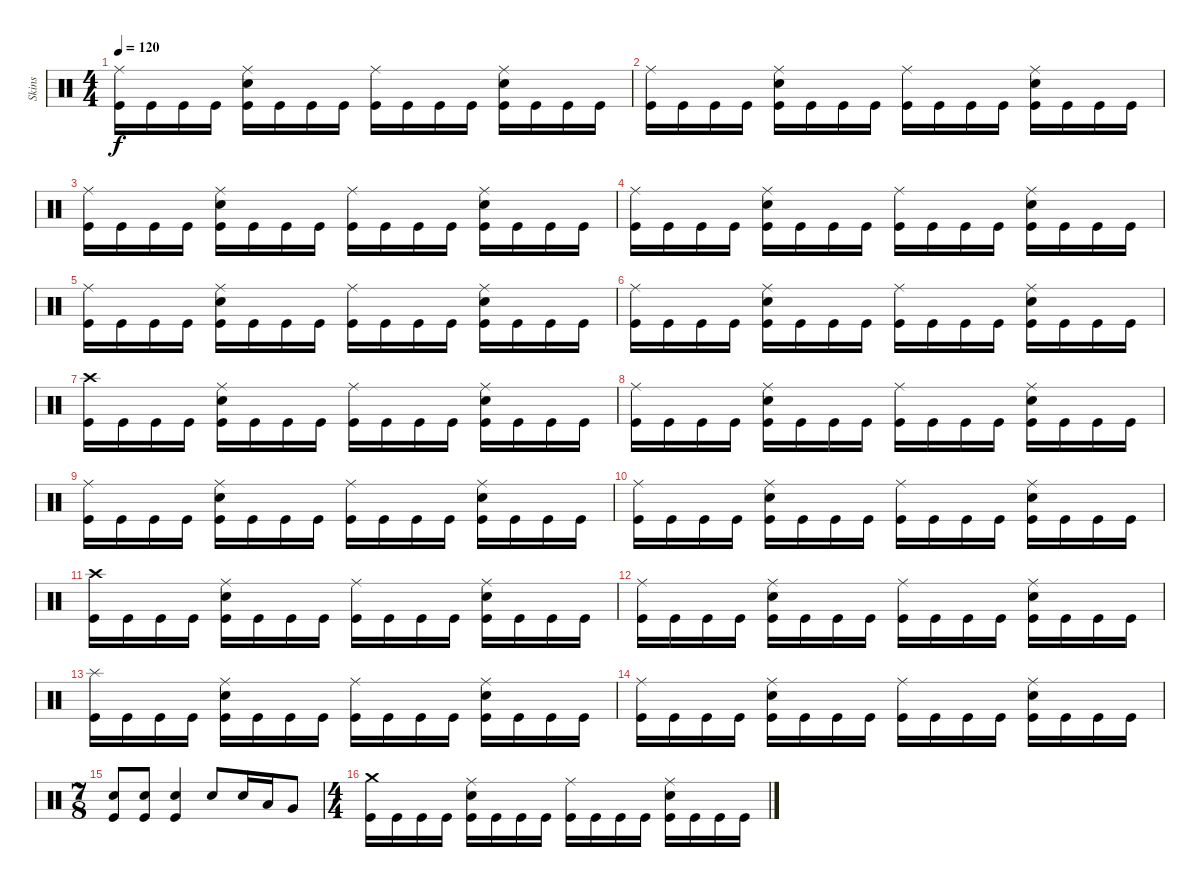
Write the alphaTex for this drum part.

\track ("Skins" "Skins") {instrument percussion}
\staff {score}
\articulation defaults
\ts (4 4)
\tempo 120
\clef neutral
\ks c
("Ride (middle)" "Kick (hit)").16{dy f} "Kick (hit)".16 "Kick (hit)".16 "Kick (hit)".16 ("Ride (middle)" "Electric Snare (hit)" "Kick (hit)").16 "Kick (hit)".16 "Kick (hit)".16 "Kick (hit)".16 ("Ride (middle)" "Kick (hit)").16 "Kick (hit)".16 "Kick (hit)".16 "Kick (hit)".16 ("Ride (middle)" "Electric Snare (hit)" "Kick (hit)").16 "Kick (hit)".16 "Kick (hit)".16 "Kick (hit)".16 |
("Ride (middle)" "Kick (hit)").16 "Kick (hit)".16 "Kick (hit)".16 "Kick (hit)".16 ("Ride (middle)" "Electric Snare (hit)" "Kick (hit)").16 "Kick (hit)".16 "Kick (hit)".16 "Kick (hit)".16 ("Ride (middle)" "Kick (hit)").16 "Kick (hit)".16 "Kick (hit)".16 "Kick (hit)".16 ("Ride (middle)" "Electric Snare (hit)" "Kick (hit)").16 "Kick (hit)".16 "Kick (hit)".16 "Kick (hit)".16 |
("Ride (middle)" "Kick (hit)").16 "Kick (hit)".16 "Kick (hit)".16 "Kick (hit)".16 ("Ride (middle)" "Electric Snare (hit)" "Kick (hit)").16 "Kick (hit)".16 "Kick (hit)".16 "Kick (hit)".16 ("Ride (middle)" "Kick (hit)").16 "Kick (hit)".16 "Kick (hit)".16 "Kick (hit)".16 ("Ride (middle)" "Electric Snare (hit)" "Kick (hit)").16 "Kick (hit)".16 "Kick (hit)".16 "Kick (hit)".16 |
("Ride (middle)" "Kick (hit)").16 "Kick (hit)".16 "Kick (hit)".16 "Kick (hit)".16 ("Ride (middle)" "Electric Snare (hit)" "Kick (hit)").16 "Kick (hit)".16 "Kick (hit)".16 "Kick (hit)".16 ("Ride (middle)" "Kick (hit)").16 "Kick (hit)".16 "Kick (hit)".16 "Kick (hit)".16 ("Ride (middle)" "Electric Snare (hit)" "Kick (hit)").16 "Kick (hit)".16 "Kick (hit)".16 "Kick (hit)".16 |
("Ride (middle)" "Kick (hit)").16 "Kick (hit)".16 "Kick (hit)".16 "Kick (hit)".16 ("Ride (middle)" "Electric Snare (hit)" "Kick (hit)").16 "Kick (hit)".16 "Kick (hit)".16 "Kick (hit)".16 ("Ride (middle)" "Kick (hit)").16 "Kick (hit)".16 "Kick (hit)".16 "Kick (hit)".16 ("Ride (middle)" "Electric Snare (hit)" "Kick (hit)").16 "Kick (hit)".16 "Kick (hit)".16 "Kick (hit)".16 |
("Ride (middle)" "Kick (hit)").16 "Kick (hit)".16 "Kick (hit)".16 "Kick (hit)".16 ("Ride (middle)" "Electric Snare (hit)" "Kick (hit)").16 "Kick (hit)".16 "Kick (hit)".16 "Kick (hit)".16 ("Ride (middle)" "Kick (hit)").16 "Kick (hit)".16 "Kick (hit)".16 "Kick (hit)".16 ("Ride (middle)" "Electric Snare (hit)" "Kick (hit)").16 "Kick (hit)".16 "Kick (hit)".16 "Kick (hit)".16 |
("Crash high (hit)" "Kick (hit)").16 "Kick (hit)".16 "Kick (hit)".16 "Kick (hit)".16 ("Ride (middle)" "Electric Snare (hit)" "Kick (hit)").16 "Kick (hit)".16 "Kick (hit)".16 "Kick (hit)".16 ("Ride (middle)" "Kick (hit)").16 "Kick (hit)".16 "Kick (hit)".16 "Kick (hit)".16 ("Ride (middle)" "Electric Snare (hit)" "Kick (hit)").16 "Kick (hit)".16 "Kick (hit)".16 "Kick (hit)".16 |
("Ride (middle)" "Kick (hit)").16 "Kick (hit)".16 "Kick (hit)".16 "Kick (hit)".16 ("Ride (middle)" "Electric Snare (hit)" "Kick (hit)").16 "Kick (hit)".16 "Kick (hit)".16 "Kick (hit)".16 ("Ride (middle)" "Kick (hit)").16 "Kick (hit)".16 "Kick (hit)".16 "Kick (hit)".16 ("Ride (middle)" "Electric Snare (hit)" "Kick (hit)").16 "Kick (hit)".16 "Kick (hit)".16 "Kick (hit)".16 |
("Ride (middle)" "Kick (hit)").16 "Kick (hit)".16 "Kick (hit)".16 "Kick (hit)".16 ("Ride (middle)" "Electric Snare (hit)" "Kick (hit)").16 "Kick (hit)".16 "Kick (hit)".16 "Kick (hit)".16 ("Ride (middle)" "Kick (hit)").16 "Kick (hit)".16 "Kick (hit)".16 "Kick (hit)".16 ("Ride (middle)" "Electric Snare (hit)" "Kick (hit)").16 "Kick (hit)".16 "Kick (hit)".16 "Kick (hit)".16 |
("Ride (middle)" "Kick (hit)").16 "Kick (hit)".16 "Kick (hit)".16 "Kick (hit)".16 ("Ride (middle)" "Electric Snare (hit)" "Kick (hit)").16 "Kick (hit)".16 "Kick (hit)".16 "Kick (hit)".16 ("Ride (middle)" "Kick (hit)").16 "Kick (hit)".16 "Kick (hit)".16 "Kick (hit)".16 ("Ride (middle)" "Electric Snare (hit)" "Kick (hit)").16 "Kick (hit)".16 "Kick (hit)".16 "Kick (hit)".16 |
("Crash high (hit)" "Kick (hit)").16 "Kick (hit)".16 "Kick (hit)".16 "Kick (hit)".16 ("Ride (middle)" "Electric Snare (hit)" "Kick (hit)").16 "Kick (hit)".16 "Kick (hit)".16 "Kick (hit)".16 ("Ride (middle)" "Kick (hit)").16 "Kick (hit)".16 "Kick (hit)".16 "Kick (hit)".16 ("Ride (middle)" "Electric Snare (hit)" "Kick (hit)").16 "Kick (hit)".16 "Kick (hit)".16 "Kick (hit)".16 |
("Ride (middle)" "Kick (hit)").16 "Kick (hit)".16 "Kick (hit)".16 "Kick (hit)".16 ("Ride (middle)" "Electric Snare (hit)" "Kick (hit)").16 "Kick (hit)".16 "Kick (hit)".16 "Kick (hit)".16 ("Ride (middle)" "Kick (hit)").16 "Kick (hit)".16 "Kick (hit)".16 "Kick (hit)".16 ("Ride (middle)" "Electric Snare (hit)" "Kick (hit)").16 "Kick (hit)".16 "Kick (hit)".16 "Kick (hit)".16 |
("Splash (hit)" "Kick (hit)").16 "Kick (hit)".16 "Kick (hit)".16 "Kick (hit)".16 ("Ride (middle)" "Electric Snare (hit)" "Kick (hit)").16 "Kick (hit)".16 "Kick (hit)".16 "Kick (hit)".16 ("Ride (middle)" "Kick (hit)").16 "Kick (hit)".16 "Kick (hit)".16 "Kick (hit)".16 ("Ride (middle)" "Electric Snare (hit)" "Kick (hit)").16 "Kick (hit)".16 "Kick (hit)".16 "Kick (hit)".16 |
("Ride (middle)" "Kick (hit)").16 "Kick (hit)".16 "Kick (hit)".16 "Kick (hit)".16 ("Ride (middle)" "Electric Snare (hit)" "Kick (hit)").16 "Kick (hit)".16 "Kick (hit)".16 "Kick (hit)".16 ("Ride (middle)" "Kick (hit)").16 "Kick (hit)".16 "Kick (hit)".16 "Kick (hit)".16 ("Ride (middle)" "Electric Snare (hit)" "Kick (hit)").16 "Kick (hit)".16 "Kick (hit)".16 "Kick (hit)".16 |
\ts (7 8)
("Snare (hit) 2" "Kick (hit)").8 ("Snare (hit) 2" "Kick (hit)").8 ("Snare (hit) 2" "Kick (hit)").4 "Electric Snare (hit)".8 "Electric Snare (hit)".16 "Low Tom (hit)".16 "Very Low Tom (hit)".8 |
\ts (4 4)
("Crash medium (hit)" "Kick (hit)").16 "Kick (hit)".16 "Kick (hit)".16 "Kick (hit)".16 ("Ride (middle)" "Electric Snare (hit)" "Kick (hit)").16 "Kick (hit)".16 "Kick (hit)".16 "Kick (hit)".16 ("Ride (middle)" "Kick (hit)").16 "Kick (hit)".16 "Kick (hit)".16 "Kick (hit)".16 ("Ride (middle)" "Electric Snare (hit)" "Kick (hit)").16 "Kick (hit)".16 "Kick (hit)".16 "Kick (hit)".16
